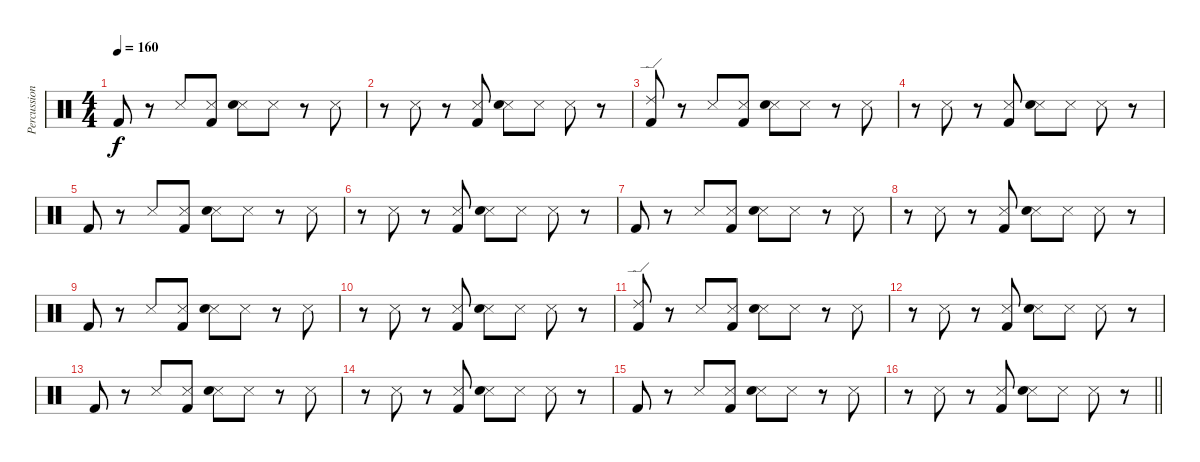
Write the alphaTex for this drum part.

\track ("Percussion" "Percussion") {instrument percussion}
\staff {score}
\articulation defaults
\ts (4 4)
\tempo 160
\clef neutral
\ks c "Kick (hit) 2".8{dy f}
r.8 "Snare (side stick) 3".8 ("Snare (side stick) 3" "Kick (hit) 2").8 ("Snare (side stick) 3" "Electric Snare (hit)").8 "Snare (side stick) 3".8 r.8 "Snare (side stick) 3".8 |
r.8 "Snare (side stick) 3".8 r.8 ("Snare (side stick) 3" "Kick (hit) 2").8 ("Snare (side stick) 3" "Electric Snare (hit)").8 "Snare (side stick) 3".8 "Snare (side stick) 3".8 r.8 |
("Ride (edge) 2" "Kick (hit) 2").8 r.8 "Snare (side stick) 3".8 ("Snare (side stick) 3" "Kick (hit) 2").8 ("Snare (side stick) 3" "Electric Snare (hit)").8 "Snare (side stick) 3".8 r.8 "Snare (side stick) 3".8 |
r.8 "Snare (side stick) 3".8 r.8 ("Snare (side stick) 3" "Kick (hit) 2").8 ("Snare (side stick) 3" "Electric Snare (hit)").8 "Snare (side stick) 3".8 "Snare (side stick) 3".8 r.8 |
"Kick (hit) 2".8 r.8 "Snare (side stick) 3".8 ("Snare (side stick) 3" "Kick (hit) 2").8 ("Snare (side stick) 3" "Electric Snare (hit)").8 "Snare (side stick) 3".8 r.8 "Snare (side stick) 3".8 |
r.8 "Snare (side stick) 3".8 r.8 ("Snare (side stick) 3" "Kick (hit) 2").8 ("Snare (side stick) 3" "Electric Snare (hit)").8 "Snare (side stick) 3".8 "Snare (side stick) 3".8 r.8 |
"Kick (hit) 2".8 r.8 "Snare (side stick) 3".8 ("Snare (side stick) 3" "Kick (hit) 2").8 ("Snare (side stick) 3" "Electric Snare (hit)").8 "Snare (side stick) 3".8 r.8 "Snare (side stick) 3".8 |
r.8 "Snare (side stick) 3".8 r.8 ("Snare (side stick) 3" "Kick (hit) 2").8 ("Snare (side stick) 3" "Electric Snare (hit)").8 "Snare (side stick) 3".8 "Snare (side stick) 3".8 r.8 |
"Kick (hit) 2".8 r.8 "Snare (side stick) 3".8 ("Snare (side stick) 3" "Kick (hit) 2").8 ("Snare (side stick) 3" "Electric Snare (hit)").8 "Snare (side stick) 3".8 r.8 "Snare (side stick) 3".8 |
r.8 "Snare (side stick) 3".8 r.8 ("Snare (side stick) 3" "Kick (hit) 2").8 ("Snare (side stick) 3" "Electric Snare (hit)").8 "Snare (side stick) 3".8 "Snare (side stick) 3".8 r.8 |
("Ride (edge) 2" "Kick (hit) 2").8 r.8 "Snare (side stick) 3".8 ("Snare (side stick) 3" "Kick (hit) 2").8 ("Snare (side stick) 3" "Electric Snare (hit)").8 "Snare (side stick) 3".8 r.8 "Snare (side stick) 3".8 |
r.8 "Snare (side stick) 3".8 r.8 ("Snare (side stick) 3" "Kick (hit) 2").8 ("Snare (side stick) 3" "Electric Snare (hit)").8 "Snare (side stick) 3".8 "Snare (side stick) 3".8 r.8 |
"Kick (hit) 2".8 r.8 "Snare (side stick) 3".8 ("Snare (side stick) 3" "Kick (hit) 2").8 ("Snare (side stick) 3" "Electric Snare (hit)").8 "Snare (side stick) 3".8 r.8 "Snare (side stick) 3".8 |
r.8 "Snare (side stick) 3".8 r.8 ("Snare (side stick) 3" "Kick (hit) 2").8 ("Snare (side stick) 3" "Electric Snare (hit)").8 "Snare (side stick) 3".8 "Snare (side stick) 3".8 r.8 |
"Kick (hit) 2".8 r.8 "Snare (side stick) 3".8 ("Snare (side stick) 3" "Kick (hit) 2").8 ("Snare (side stick) 3" "Electric Snare (hit)").8 "Snare (side stick) 3".8 r.8 "Snare (side stick) 3".8 |
\barLineRight lightlight
r.8 "Snare (side stick) 3".8 r.8 ("Snare (side stick) 3" "Kick (hit) 2").8 ("Snare (side stick) 3" "Electric Snare (hit)").8 "Snare (side stick) 3".8 "Snare (side stick) 3".8 r.8
